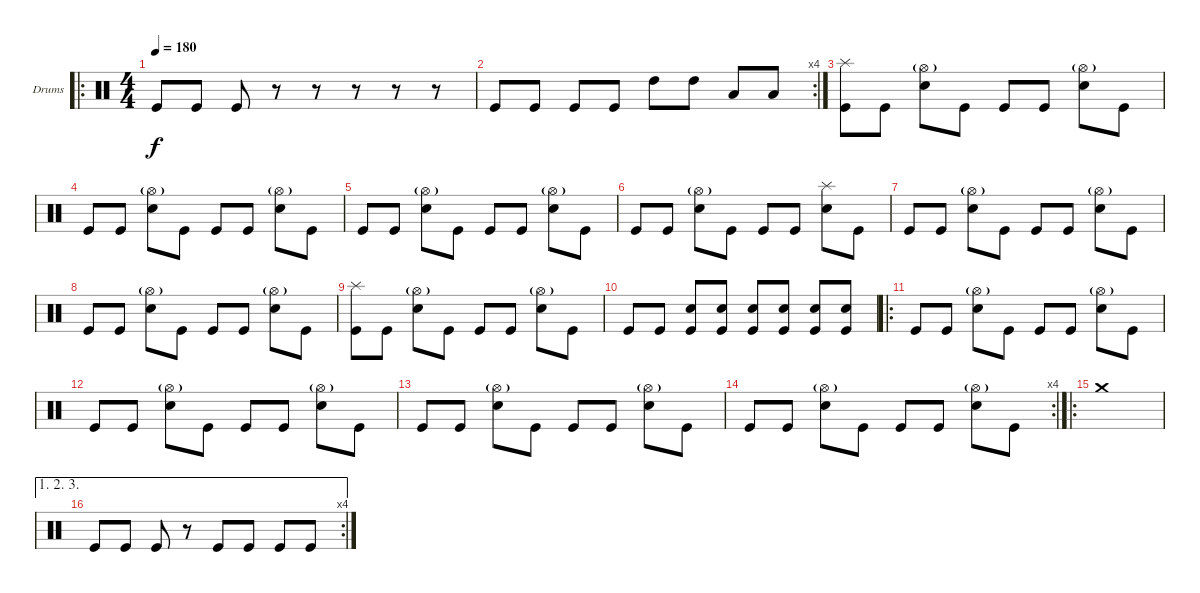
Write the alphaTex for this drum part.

\bracketExtendMode groupsimilarinstruments
\firstSystemTrackNameOrientation horizontal
\otherSystemsTrackNameOrientation horizontal
\track ("Drumkit" "Drums") {instrument percussion}
\staff {score}
\articulation defaults
\ro
\ts (4 4)
\tempo 180
\clef neutral
\ks c "Kick (hit)".8{dy f} "Kick (hit)".8 "Kick (hit)".8
r.8 r.8 r.8 r.8 r.8 |
\rc 4 "Kick (hit)".8 "Kick (hit)".8 "Kick (hit)".8 "Kick (hit)".8 "High Tom (hit)".8 "High Tom (hit)".8 "Low Tom (hit)".8 "Low Tom (hit)".8
|
("Splash (hit)" "Kick (hit)").8 "Kick (hit)".8 ("Hi-Hat (open)"{g} "Snare (hit) 2").8 "Kick (hit)".8 "Kick (hit)".8 "Kick (hit)".8 ("Hi-Hat (open)"{g} "Snare (hit) 2").8 "Kick (hit)".8 |
"Kick (hit)".8 "Kick (hit)".8 ("Hi-Hat (open)"{g} "Snare (hit) 2").8 "Kick (hit)".8 "Kick (hit)".8 "Kick (hit)".8 ("Hi-Hat (open)"{g} "Snare (hit) 2").8 "Kick (hit)".8 |
"Kick (hit)".8 "Kick (hit)".8 ("Hi-Hat (open)"{g} "Snare (hit) 2").8 "Kick (hit)".8 "Kick (hit)".8 "Kick (hit)".8 ("Hi-Hat (open)"{g} "Snare (hit) 2").8 "Kick (hit)".8 |
"Kick (hit)".8 "Kick (hit)".8 ("Hi-Hat (open)"{g} "Snare (hit) 2").8 "Kick (hit)".8 "Kick (hit)".8 "Kick (hit)".8 ("Splash (hit)" "Snare (hit) 2").8 "Kick (hit)".8 |
"Kick (hit)".8 "Kick (hit)".8 ("Hi-Hat (open)"{g} "Snare (hit) 2").8 "Kick (hit)".8 "Kick (hit)".8 "Kick (hit)".8 ("Hi-Hat (open)"{g} "Snare (hit) 2").8 "Kick (hit)".8 |
"Kick (hit)".8 "Kick (hit)".8 ("Hi-Hat (open)"{g} "Snare (hit) 2").8 "Kick (hit)".8 "Kick (hit)".8 "Kick (hit)".8 ("Hi-Hat (open)"{g} "Snare (hit) 2").8 "Kick (hit)".8 |
("Splash (hit)" "Kick (hit)").8 "Kick (hit)".8 ("Hi-Hat (open)"{g} "Snare (hit) 2").8 "Kick (hit)".8 "Kick (hit)".8 "Kick (hit)".8 ("Hi-Hat (open)"{g} "Snare (hit) 2").8 "Kick (hit)".8 |
"Kick (hit)".8 "Kick (hit)".8 ("Snare (hit) 2" "Kick (hit)").8 ("Snare (hit) 2" "Kick (hit)").8 ("Snare (hit) 2" "Kick (hit)").8 ("Snare (hit) 2" "Kick (hit)").8 ("Snare (hit) 2" "Kick (hit)").8 ("Snare (hit) 2" "Kick (hit)").8 |
\ro "Kick (hit)".8 "Kick (hit)".8
("Hi-Hat (open)"{g} "Snare (hit) 2").8 "Kick (hit)".8 "Kick (hit)".8 "Kick (hit)".8 ("Hi-Hat (open)"{g} "Snare (hit) 2").8 "Kick (hit)".8 |
"Kick (hit)".8 "Kick (hit)".8 ("Hi-Hat (open)"{g} "Snare (hit) 2").8 "Kick (hit)".8 "Kick (hit)".8 "Kick (hit)".8 ("Hi-Hat (open)"{g} "Snare (hit) 2").8 "Kick (hit)".8 |
"Kick (hit)".8 "Kick (hit)".8 ("Hi-Hat (open)"{g} "Snare (hit) 2").8 "Kick (hit)".8 "Kick (hit)".8 "Kick (hit)".8 ("Hi-Hat (open)"{g} "Snare (hit) 2").8 "Kick (hit)".8 |
\rc 4 "Kick (hit)".8 "Kick (hit)".8
("Hi-Hat (open)"{g} "Snare (hit) 2").8 "Kick (hit)".8 "Kick (hit)".8 "Kick (hit)".8 ("Hi-Hat (open)"{g} "Snare (hit) 2").8 "Kick (hit)".8 |
\ro "Crash medium (hit)".1
|
\ae (1 2 3)
\rc 4 "Kick (hit)".8 "Kick (hit)".8 "Kick (hit)".8
r.8 "Kick (hit)".8 "Kick (hit)".8 "Kick (hit)".8 "Kick (hit)".8
